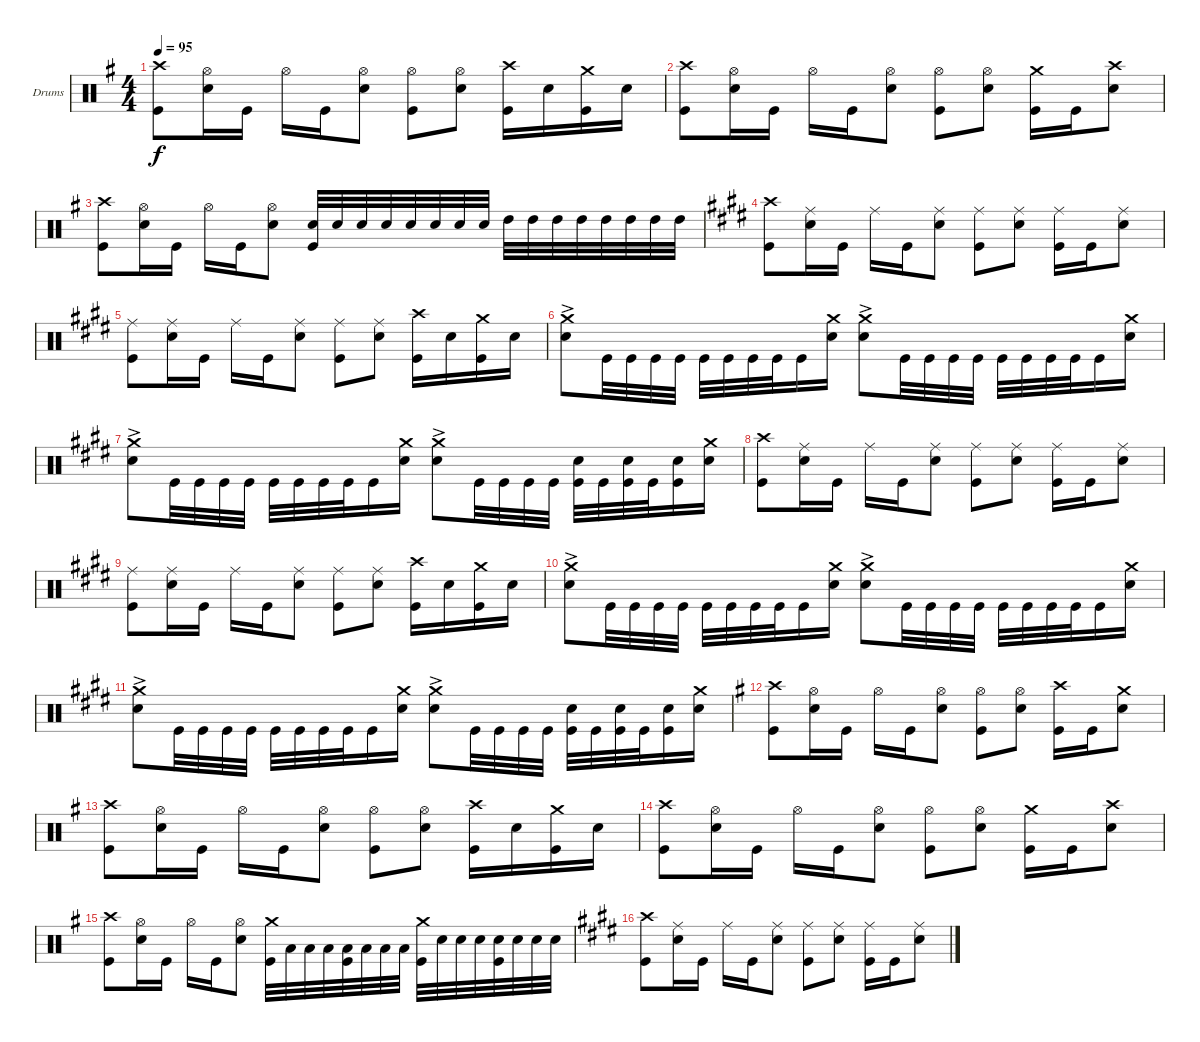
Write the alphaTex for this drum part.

\bracketExtendMode groupsimilarinstruments
\firstSystemTrackNameOrientation horizontal
\otherSystemsTrackNameOrientation horizontal
\track ("Drumkit" "Drums") {instrument percussion}
\staff {score}
\articulation defaults
\ts (4 4)
\tempo 95
\clef neutral
\ks eminor
("Kick (hit)" "Crash high (hit)").8{dy f} ("Snare (hit) 2" "Hi-Hat (open)").16 "Kick (hit)".16 "Hi-Hat (open)".16 "Kick (hit)".16 ("Snare (hit) 2" "Hi-Hat (open)").8 ("Kick (hit)" "Hi-Hat (open)").8 ("Snare (hit) 2" "Hi-Hat (open)").8 ("Crash high (hit)" "Kick (hit)").16 "Snare (hit) 2".16 ("Crash medium (hit)" "Kick (hit)").16 "Snare (hit) 2".16 |
("Crash high (hit)" "Kick (hit)").8 ("Snare (hit) 2" "Hi-Hat (open)").16 "Kick (hit)".16 "Hi-Hat (open)".16 "Kick (hit)".16 ("Snare (hit) 2" "Hi-Hat (open)").8 ("Kick (hit)" "Hi-Hat (open)").8 ("Snare (hit) 2" "Hi-Hat (open)").8 ("Kick (hit)" "Crash medium (hit)").16 "Kick (hit)".16 ("Snare (hit) 2" "Crash high (hit)").8 |
("Crash high (hit)" "Kick (hit)").8 ("Snare (hit) 2" "Hi-Hat (open)").16 "Kick (hit)".16 "Hi-Hat (open)".16 "Kick (hit)".16 ("Snare (hit) 2" "Hi-Hat (open)").8 ("Kick (hit)" "Snare (hit) 2").32 "Snare (hit) 2".32 "Snare (hit) 2".32 "Snare (hit) 2".32 "Snare (hit) 2".32 "Snare (hit) 2".32 "Snare (hit) 2".32 "Snare (hit) 2".32 "High Tom (hit)".32 "High Tom (hit)".32 "High Tom (hit)".32 "High Tom (hit)".32 "High Tom (hit)".32 "High Tom (hit)".32 "High Tom (hit)".32 "High Tom (hit)".32 |
\ks c#minor
("Crash high (hit)" "Kick (hit)").8 ("Snare (hit) 2" "Ride (middle)").16 "Kick (hit)".16 "Ride (middle)".16 "Kick (hit)".16 ("Snare (hit) 2" "Ride (middle)").8 ("Kick (hit)" "Ride (middle)").8 ("Snare (hit) 2" "Ride (middle)").8 ("Kick (hit)" "Ride (middle)").16 "Kick (hit)".16 ("Snare (hit) 2" "Ride (middle)").8 |
("Kick (hit)" "Ride (middle)").8 ("Snare (hit) 2" "Ride (middle)").16 "Kick (hit)".16 "Ride (middle)".16 "Kick (hit)".16 ("Snare (hit) 2" "Ride (middle)").8 ("Kick (hit)" "Ride (middle)").8 ("Snare (hit) 2" "Ride (middle)").8 ("Crash high (hit)" "Kick (hit)").16 "Snare (hit) 2".16 ("Crash medium (hit)" "Kick (hit)").16 "Snare (hit) 2".16 |
("Crash medium (hit)"{ac} "Snare (hit) 2").8 "Kick (hit)".32 "Kick (hit)".32 "Kick (hit)".32 "Kick (hit)".32 "Kick (hit)".32 "Kick (hit)".32 "Kick (hit)".32 "Kick (hit)".32 "Kick (hit)".16 ("Snare (hit) 2" "Crash medium (hit)").16 ("Crash medium (hit)"{ac} "Snare (hit) 2").8 "Kick (hit)".32 "Kick (hit)".32 "Kick (hit)".32 "Kick (hit)".32 "Kick (hit)".32 "Kick (hit)".32 "Kick (hit)".32 "Kick (hit)".32 "Kick (hit)".16 ("Snare (hit) 2" "Crash medium (hit)").16 |
("Crash medium (hit)"{ac} "Snare (hit) 2").8 "Kick (hit)".32 "Kick (hit)".32 "Kick (hit)".32 "Kick (hit)".32 "Kick (hit)".32 "Kick (hit)".32 "Kick (hit)".32 "Kick (hit)".32 "Kick (hit)".16 ("Snare (hit) 2" "Crash medium (hit)").16 ("Crash medium (hit)"{ac} "Snare (hit) 2").8 "Kick (hit)".32 "Kick (hit)".32 "Kick (hit)".32 "Kick (hit)".32 ("Kick (hit)" "Snare (hit) 2").32 "Kick (hit)".32 ("Kick (hit)" "Snare (hit) 2").32 "Kick (hit)".32 ("Kick (hit)" "Snare (hit) 2").16 ("Snare (hit) 2" "Crash medium (hit)").16 |
("Crash high (hit)" "Kick (hit)").8 ("Snare (hit) 2" "Ride (middle)").16 "Kick (hit)".16 "Ride (middle)".16 "Kick (hit)".16 ("Snare (hit) 2" "Ride (middle)").8 ("Kick (hit)" "Ride (middle)").8 ("Snare (hit) 2" "Ride (middle)").8 ("Kick (hit)" "Ride (middle)").16 "Kick (hit)".16 ("Snare (hit) 2" "Ride (middle)").8 |
("Kick (hit)" "Ride (middle)").8 ("Snare (hit) 2" "Ride (middle)").16 "Kick (hit)".16 "Ride (middle)".16 "Kick (hit)".16 ("Snare (hit) 2" "Ride (middle)").8 ("Kick (hit)" "Ride (middle)").8 ("Snare (hit) 2" "Ride (middle)").8 ("Crash high (hit)" "Kick (hit)").16 "Snare (hit) 2".16 ("Crash medium (hit)" "Kick (hit)").16 "Snare (hit) 2".16 |
("Crash medium (hit)"{ac} "Snare (hit) 2").8 "Kick (hit)".32 "Kick (hit)".32 "Kick (hit)".32 "Kick (hit)".32 "Kick (hit)".32 "Kick (hit)".32 "Kick (hit)".32 "Kick (hit)".32 "Kick (hit)".16 ("Snare (hit) 2" "Crash medium (hit)").16 ("Crash medium (hit)"{ac} "Snare (hit) 2").8 "Kick (hit)".32 "Kick (hit)".32 "Kick (hit)".32 "Kick (hit)".32 "Kick (hit)".32 "Kick (hit)".32 "Kick (hit)".32 "Kick (hit)".32 "Kick (hit)".16 ("Snare (hit) 2" "Crash medium (hit)").16 |
("Crash medium (hit)"{ac} "Snare (hit) 2").8 "Kick (hit)".32 "Kick (hit)".32 "Kick (hit)".32 "Kick (hit)".32 "Kick (hit)".32 "Kick (hit)".32 "Kick (hit)".32 "Kick (hit)".32 "Kick (hit)".16 ("Snare (hit) 2" "Crash medium (hit)").16 ("Crash medium (hit)"{ac} "Snare (hit) 2").8 "Kick (hit)".32 "Kick (hit)".32 "Kick (hit)".32 "Kick (hit)".32 ("Kick (hit)" "Snare (hit) 2").32 "Kick (hit)".32 ("Kick (hit)" "Snare (hit) 2").32 "Kick (hit)".32 ("Kick (hit)" "Snare (hit) 2").16 ("Snare (hit) 2" "Crash medium (hit)").16 |
\ks eminor
("Crash high (hit)" "Kick (hit)").8 ("Snare (hit) 2" "Hi-Hat (open)").16 "Kick (hit)".16 "Hi-Hat (open)".16 "Kick (hit)".16 ("Snare (hit) 2" "Hi-Hat (open)").8 ("Kick (hit)" "Hi-Hat (open)").8 ("Snare (hit) 2" "Hi-Hat (open)").8 ("Kick (hit)" "Crash high (hit)").16 "Kick (hit)".16 ("Snare (hit) 2" "Crash medium (hit)").8 |
("Kick (hit)" "Crash high (hit)").8 ("Snare (hit) 2" "Hi-Hat (open)").16 "Kick (hit)".16 "Hi-Hat (open)".16 "Kick (hit)".16 ("Snare (hit) 2" "Hi-Hat (open)").8 ("Kick (hit)" "Hi-Hat (open)").8 ("Snare (hit) 2" "Hi-Hat (open)").8 ("Crash high (hit)" "Kick (hit)").16 "Snare (hit) 2".16 ("Crash medium (hit)" "Kick (hit)").16 "Snare (hit) 2".16 |
("Crash high (hit)" "Kick (hit)").8 ("Snare (hit) 2" "Hi-Hat (open)").16 "Kick (hit)".16 "Hi-Hat (open)".16 "Kick (hit)".16 ("Snare (hit) 2" "Hi-Hat (open)").8 ("Kick (hit)" "Hi-Hat (open)").8 ("Snare (hit) 2" "Hi-Hat (open)").8 ("Kick (hit)" "Crash medium (hit)").16 "Kick (hit)".16 ("Snare (hit) 2" "Crash high (hit)").8 |
("Crash high (hit)" "Kick (hit)").8 ("Snare (hit) 2" "Hi-Hat (open)").16 "Kick (hit)".16 "Hi-Hat (open)".16 "Kick (hit)".16 ("Snare (hit) 2" "Hi-Hat (open)").8 ("Crash medium (hit)" "Kick (hit)").32 "Low Tom (hit)".32 "Low Tom (hit)".32 "Low Tom (hit)".32 ("Low Tom (hit)" "Kick (hit)").32 "Low Tom (hit)".32 "Low Tom (hit)".32 "Low Tom (hit)".32 ("Crash medium (hit)" "Kick (hit)").32 "Snare (hit) 2".32 "Snare (hit) 2".32 "Snare (hit) 2".32 ("Snare (hit) 2" "Kick (hit)").32 "Snare (hit) 2".32 "Snare (hit) 2".32 "Snare (hit) 2".32 |
\ks c#minor
("Crash high (hit)" "Kick (hit)").8 ("Snare (hit) 2" "Ride (middle)").16 "Kick (hit)".16 "Ride (middle)".16 "Kick (hit)".16 ("Snare (hit) 2" "Ride (middle)").8 ("Kick (hit)" "Ride (middle)").8 ("Snare (hit) 2" "Ride (middle)").8 ("Kick (hit)" "Ride (middle)").16 "Kick (hit)".16 ("Snare (hit) 2" "Ride (middle)").8
